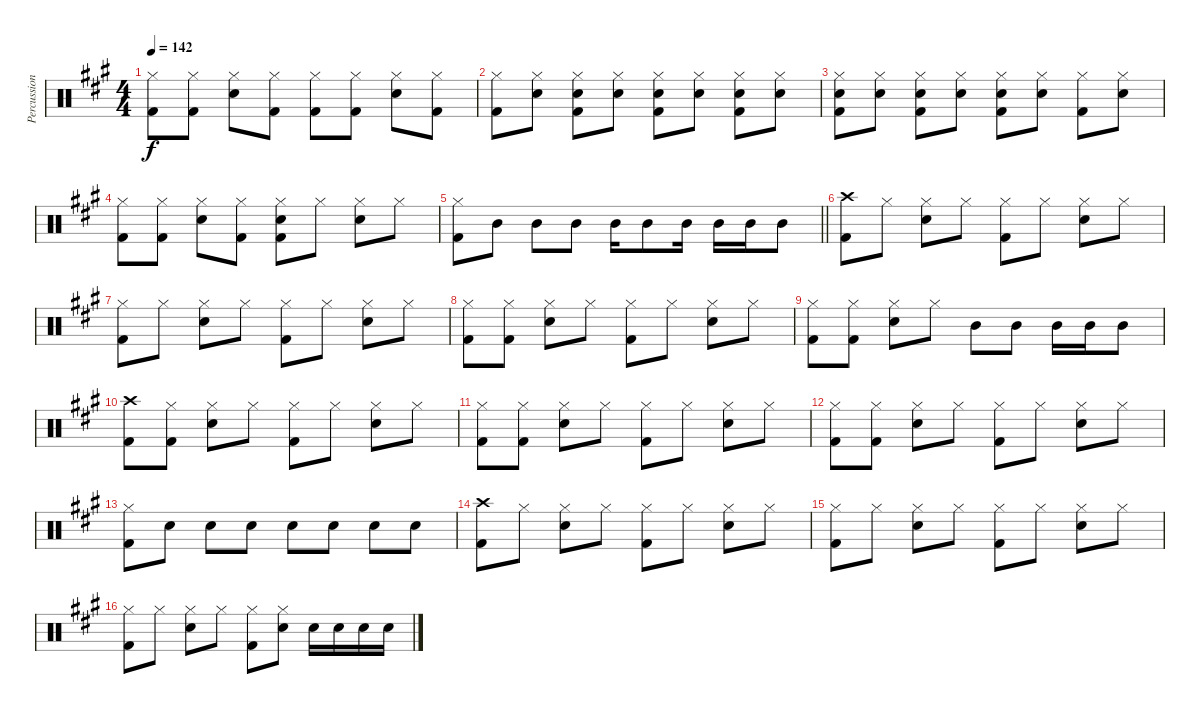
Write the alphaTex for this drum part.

\track ("Percussion" "Percussion") {instrument percussion}
\staff {score}
\articulation defaults
\ts (4 4)
\tempo 142
\clef neutral
\ks a
("Hi-Hat (closed)" "Kick (hit) 2").8{dy f} ("Hi-Hat (closed)" "Kick (hit) 2").8 ("Hi-Hat (closed)" "Snare (hit) 2").8 ("Hi-Hat (closed)" "Kick (hit) 2").8 ("Hi-Hat (closed)" "Kick (hit) 2").8 ("Hi-Hat (closed)" "Kick (hit) 2").8 ("Hi-Hat (closed)" "Snare (hit) 2").8 ("Hi-Hat (closed)" "Kick (hit) 2").8 |
("Hi-Hat (closed)" "Kick (hit) 2").8 ("Snare (hit) 2" "Hi-Hat (closed)").8 ("Snare (hit) 2" "Hi-Hat (closed)" "Kick (hit) 2").8 ("Snare (hit) 2" "Hi-Hat (closed)").8 ("Snare (hit) 2" "Hi-Hat (closed)" "Kick (hit) 2").8 ("Snare (hit) 2" "Hi-Hat (closed)").8 ("Snare (hit) 2" "Hi-Hat (closed)" "Kick (hit) 2").8 ("Snare (hit) 2" "Hi-Hat (closed)").8 |
("Snare (hit) 2" "Hi-Hat (closed)" "Kick (hit) 2").8 ("Snare (hit) 2" "Hi-Hat (closed)").8 ("Snare (hit) 2" "Hi-Hat (closed)" "Kick (hit) 2").8 ("Snare (hit) 2" "Hi-Hat (closed)").8 ("Snare (hit) 2" "Hi-Hat (closed)" "Kick (hit) 2").8 ("Snare (hit) 2" "Hi-Hat (closed)").8 ("Hi-Hat (closed)" "Kick (hit) 2").8 ("Snare (hit) 2" "Hi-Hat (closed)").8 |
("Hi-Hat (closed)" "Kick (hit) 2").8 ("Hi-Hat (closed)" "Kick (hit) 2").8 ("Hi-Hat (closed)" "Snare (hit) 2").8 ("Hi-Hat (closed)" "Kick (hit) 2").8 ("Hi-Hat (closed)" "Kick (hit) 2" "Snare (hit) 2").8 "Hi-Hat (closed)".8 ("Hi-Hat (closed)" "Snare (hit) 2").8 "Hi-Hat (closed)".8 |
\barLineRight lightlight
("Hi-Hat (closed)" "Kick (hit) 2").8 "Mid Tom (hit)".8 "Mid Tom (hit)".8 "Mid Tom (hit)".8 "Mid Tom (hit)".16 "Mid Tom (hit)".8 "Mid Tom (hit)".16 "Mid Tom (hit)".16 "Mid Tom (hit)".16 "Mid Tom (hit)".8 |
("Crash high (hit)" "Kick (hit) 2").8 "Hi-Hat (closed)".8 ("Hi-Hat (closed)" "Snare (hit) 2").8 "Hi-Hat (closed)".8 ("Hi-Hat (closed)" "Kick (hit) 2").8 "Hi-Hat (closed)".8 ("Hi-Hat (closed)" "Snare (hit) 2").8 "Hi-Hat (closed)".8 |
("Hi-Hat (closed)" "Kick (hit) 2").8 "Hi-Hat (closed)".8 ("Hi-Hat (closed)" "Snare (hit) 2").8 "Hi-Hat (closed)".8 ("Hi-Hat (closed)" "Kick (hit) 2").8 "Hi-Hat (closed)".8 ("Hi-Hat (closed)" "Snare (hit) 2").8 "Hi-Hat (closed)".8 |
("Hi-Hat (closed)" "Kick (hit) 2").8 ("Hi-Hat (closed)" "Kick (hit) 2").8 ("Hi-Hat (closed)" "Snare (hit) 2").8 "Hi-Hat (closed)".8 ("Hi-Hat (closed)" "Kick (hit) 2").8 "Hi-Hat (closed)".8 ("Hi-Hat (closed)" "Snare (hit) 2").8 "Hi-Hat (closed)".8 |
("Hi-Hat (closed)" "Kick (hit) 2").8 ("Hi-Hat (closed)" "Kick (hit) 2").8 ("Hi-Hat (closed)" "Snare (hit) 2").8 "Hi-Hat (closed)".8 "Mid Tom (hit)".8 "Mid Tom (hit)".8 "Mid Tom (hit)".16 "Mid Tom (hit)".16 "Mid Tom (hit)".8 |
("Crash high (hit)" "Kick (hit) 2").8 ("Hi-Hat (closed)" "Kick (hit) 2").8 ("Hi-Hat (closed)" "Snare (hit) 2").8 "Hi-Hat (closed)".8 ("Hi-Hat (closed)" "Kick (hit) 2").8 "Hi-Hat (closed)".8 ("Hi-Hat (closed)" "Snare (hit) 2").8 "Hi-Hat (closed)".8 |
("Hi-Hat (closed)" "Kick (hit) 2").8 ("Hi-Hat (closed)" "Kick (hit) 2").8 ("Hi-Hat (closed)" "Snare (hit) 2").8 "Hi-Hat (closed)".8 ("Hi-Hat (closed)" "Kick (hit) 2").8 "Hi-Hat (closed)".8 ("Hi-Hat (closed)" "Snare (hit) 2").8 "Hi-Hat (closed)".8 |
("Hi-Hat (closed)" "Kick (hit) 2").8 ("Hi-Hat (closed)" "Kick (hit) 2").8 ("Hi-Hat (closed)" "Snare (hit) 2").8 "Hi-Hat (closed)".8 ("Hi-Hat (closed)" "Kick (hit) 2").8 "Hi-Hat (closed)".8 ("Hi-Hat (closed)" "Snare (hit) 2").8 "Hi-Hat (closed)".8 |
("Hi-Hat (closed)" "Kick (hit) 2").8 "Snare (hit) 2".8 "Snare (hit) 2".8 "Snare (hit) 2".8 "Snare (hit) 2".8 "Snare (hit) 2".8 "Snare (hit) 2".8 "Snare (hit) 2".8 |
("Crash high (hit)" "Kick (hit) 2").8 "Hi-Hat (closed)".8 ("Hi-Hat (closed)" "Snare (hit) 2").8 "Hi-Hat (closed)".8 ("Hi-Hat (closed)" "Kick (hit) 2").8 "Hi-Hat (closed)".8 ("Hi-Hat (closed)" "Snare (hit) 2").8 "Hi-Hat (closed)".8 |
("Hi-Hat (closed)" "Kick (hit) 2").8 "Hi-Hat (closed)".8 ("Hi-Hat (closed)" "Snare (hit) 2").8 "Hi-Hat (closed)".8 ("Hi-Hat (closed)" "Kick (hit) 2").8 "Hi-Hat (closed)".8 ("Hi-Hat (closed)" "Snare (hit) 2").8 "Hi-Hat (closed)".8 |
("Hi-Hat (closed)" "Kick (hit) 2").8 "Hi-Hat (closed)".8 ("Hi-Hat (closed)" "Snare (hit) 2").8 "Hi-Hat (closed)".8 ("Hi-Hat (closed)" "Kick (hit) 2").8 ("Hi-Hat (closed)" "Snare (hit) 2").8 "Snare (hit) 2".16 "Snare (hit) 2".16 "Snare (hit) 2".16 "Snare (hit) 2".16
